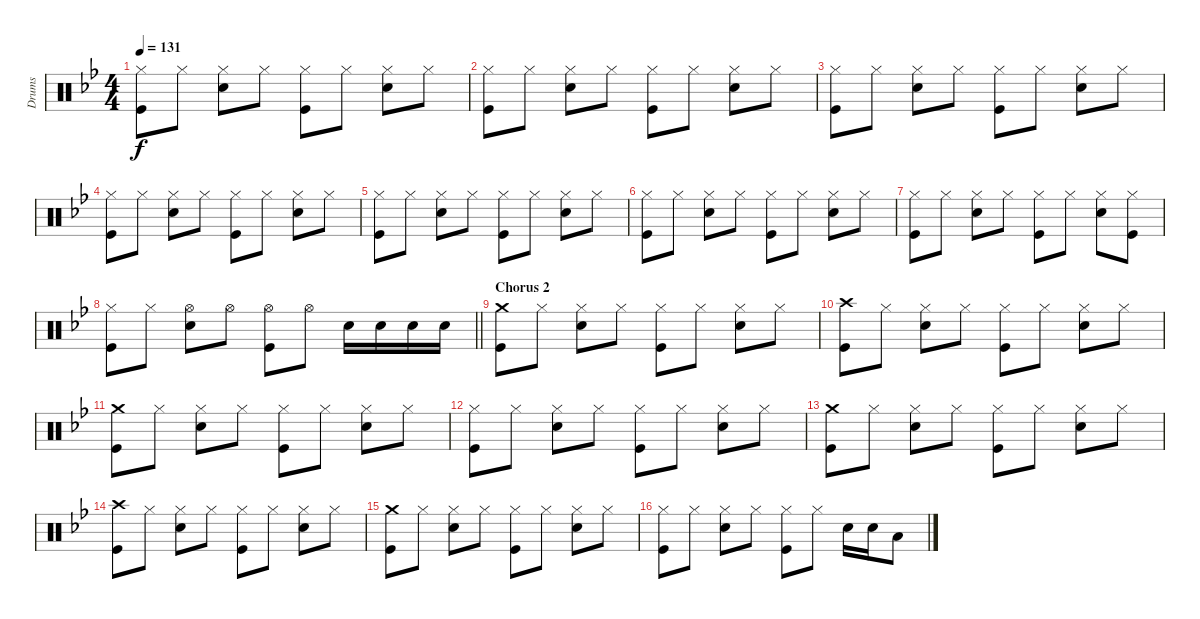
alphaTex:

\track ("Drums" "Drums") {instrument percussion}
\staff {score}
\articulation defaults
\ts (4 4)
\tempo 131
\clef neutral
\ks bb
("Hi-Hat (closed)" "Kick (hit)").8{dy f} "Hi-Hat (closed)".8 ("Hi-Hat (closed)" "Snare (hit) 2").8 "Hi-Hat (closed)".8 ("Hi-Hat (closed)" "Kick (hit)").8 "Hi-Hat (closed)".8 ("Hi-Hat (closed)" "Snare (hit) 2").8 "Hi-Hat (closed)".8 |
("Hi-Hat (closed)" "Kick (hit)").8 "Hi-Hat (closed)".8 ("Hi-Hat (closed)" "Snare (hit) 2").8 "Hi-Hat (closed)".8 ("Hi-Hat (closed)" "Kick (hit)").8 "Hi-Hat (closed)".8 ("Hi-Hat (closed)" "Snare (hit) 2").8 "Hi-Hat (closed)".8 |
("Hi-Hat (closed)" "Kick (hit)").8 "Hi-Hat (closed)".8 ("Hi-Hat (closed)" "Snare (hit) 2").8 "Hi-Hat (closed)".8 ("Hi-Hat (closed)" "Kick (hit)").8 "Hi-Hat (closed)".8 ("Hi-Hat (closed)" "Snare (hit) 2").8 "Hi-Hat (closed)".8 |
("Hi-Hat (closed)" "Kick (hit)").8 "Hi-Hat (closed)".8 ("Hi-Hat (closed)" "Snare (hit) 2").8 "Hi-Hat (closed)".8 ("Hi-Hat (closed)" "Kick (hit)").8 "Hi-Hat (closed)".8 ("Hi-Hat (closed)" "Snare (hit) 2").8 "Hi-Hat (closed)".8 |
("Hi-Hat (closed)" "Kick (hit)").8 "Hi-Hat (closed)".8 ("Hi-Hat (closed)" "Snare (hit) 2").8 "Hi-Hat (closed)".8 ("Hi-Hat (closed)" "Kick (hit)").8 "Hi-Hat (closed)".8 ("Hi-Hat (closed)" "Snare (hit) 2").8 "Hi-Hat (closed)".8 |
("Hi-Hat (closed)" "Kick (hit)").8 "Hi-Hat (closed)".8 ("Hi-Hat (closed)" "Snare (hit) 2").8 "Hi-Hat (closed)".8 ("Hi-Hat (closed)" "Kick (hit)").8 "Hi-Hat (closed)".8 ("Hi-Hat (closed)" "Snare (hit) 2").8 "Hi-Hat (closed)".8 |
("Hi-Hat (closed)" "Kick (hit)").8 "Hi-Hat (closed)".8 ("Hi-Hat (closed)" "Snare (hit) 2").8 "Hi-Hat (closed)".8 ("Hi-Hat (closed)" "Kick (hit)").8 "Hi-Hat (closed)".8 ("Hi-Hat (closed)" "Snare (hit) 2").8 ("Hi-Hat (closed)" "Kick (hit)").8 |
\barLineRight lightlight
("Hi-Hat (closed)" "Kick (hit)").8 "Hi-Hat (closed)".8 ("Hi-Hat (open)" "Snare (hit) 2").8 "Hi-Hat (open)".8 ("Hi-Hat (open)" "Kick (hit)").8 "Hi-Hat (open)".8 "Snare (hit) 2".16 "Snare (hit) 2".16 "Snare (hit) 2".16 "Snare (hit) 2".16 |
\section ("" "Chorus 2")
("Crash medium (hit)" "Kick (hit)").8 "Hi-Hat (closed)".8 ("Hi-Hat (closed)" "Snare (hit) 2").8 "Hi-Hat (closed)".8 ("Hi-Hat (closed)" "Kick (hit)").8 "Hi-Hat (closed)".8 ("Hi-Hat (closed)" "Snare (hit) 2").8 "Hi-Hat (closed)".8 |
("Crash high (hit)" "Kick (hit)").8 "Hi-Hat (closed)".8 ("Hi-Hat (closed)" "Snare (hit) 2").8 "Hi-Hat (closed)".8 ("Hi-Hat (closed)" "Kick (hit)").8 "Hi-Hat (closed)".8 ("Hi-Hat (closed)" "Snare (hit) 2").8 "Hi-Hat (closed)".8 |
("Crash medium (hit)" "Kick (hit)").8 "Hi-Hat (closed)".8 ("Hi-Hat (closed)" "Snare (hit) 2").8 "Hi-Hat (closed)".8 ("Hi-Hat (closed)" "Kick (hit)").8 "Hi-Hat (closed)".8 ("Hi-Hat (closed)" "Snare (hit) 2").8 "Hi-Hat (closed)".8 |
("Hi-Hat (closed)" "Kick (hit)").8 "Hi-Hat (closed)".8 ("Hi-Hat (closed)" "Snare (hit) 2").8 "Hi-Hat (closed)".8 ("Hi-Hat (closed)" "Kick (hit)").8 "Hi-Hat (closed)".8 ("Hi-Hat (closed)" "Snare (hit) 2").8 "Hi-Hat (closed)".8 |
("Crash medium (hit)" "Kick (hit)").8 "Hi-Hat (closed)".8 ("Hi-Hat (closed)" "Snare (hit) 2").8 "Hi-Hat (closed)".8 ("Hi-Hat (closed)" "Kick (hit)").8 "Hi-Hat (closed)".8 ("Hi-Hat (closed)" "Snare (hit) 2").8 "Hi-Hat (closed)".8 |
("Crash high (hit)" "Kick (hit)").8 "Hi-Hat (closed)".8 ("Hi-Hat (closed)" "Snare (hit) 2").8 "Hi-Hat (closed)".8 ("Hi-Hat (closed)" "Kick (hit)").8 "Hi-Hat (closed)".8 ("Hi-Hat (closed)" "Snare (hit) 2").8 "Hi-Hat (closed)".8 |
("Crash medium (hit)" "Kick (hit)").8 "Hi-Hat (closed)".8 ("Hi-Hat (closed)" "Snare (hit) 2").8 "Hi-Hat (closed)".8 ("Hi-Hat (closed)" "Kick (hit)").8 "Hi-Hat (closed)".8 ("Hi-Hat (closed)" "Snare (hit) 2").8 "Hi-Hat (closed)".8 |
("Hi-Hat (closed)" "Kick (hit)").8 "Hi-Hat (closed)".8 ("Hi-Hat (closed)" "Snare (hit) 2").8 "Hi-Hat (closed)".8 ("Hi-Hat (closed)" "Kick (hit)").8 "Hi-Hat (closed)".8 "Snare (hit) 2".16 "Snare (hit) 2".16 "Low Tom (hit)".8
